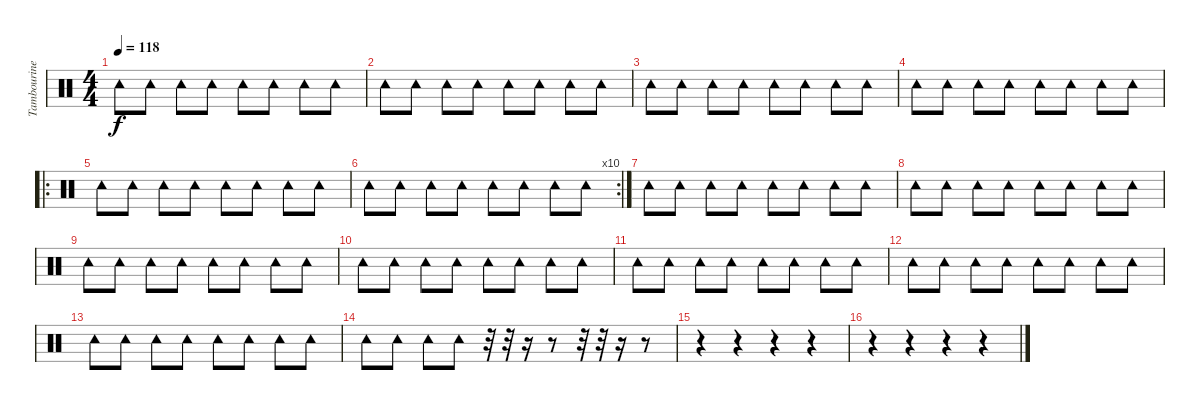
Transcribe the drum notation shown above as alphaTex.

\track ("Tambourine" "Tambourine") {instrument percussion}
\staff {score}
\articulation defaults
\ts (4 4)
\tempo 118
\clef neutral
\ks c "Tambourine (hit)".8{dy f} "Tambourine (hit)".8 "Tambourine (hit)".8 "Tambourine (hit)".8 "Tambourine (hit)".8 "Tambourine (hit)".8 "Tambourine (hit)".8 "Tambourine (hit)".8
|
"Tambourine (hit)".8 "Tambourine (hit)".8 "Tambourine (hit)".8 "Tambourine (hit)".8 "Tambourine (hit)".8 "Tambourine (hit)".8 "Tambourine (hit)".8 "Tambourine (hit)".8 |
"Tambourine (hit)".8 "Tambourine (hit)".8 "Tambourine (hit)".8 "Tambourine (hit)".8 "Tambourine (hit)".8 "Tambourine (hit)".8 "Tambourine (hit)".8 "Tambourine (hit)".8 |
"Tambourine (hit)".8 "Tambourine (hit)".8 "Tambourine (hit)".8 "Tambourine (hit)".8 "Tambourine (hit)".8 "Tambourine (hit)".8 "Tambourine (hit)".8 "Tambourine (hit)".8 |
\ro "Tambourine (hit)".8 "Tambourine (hit)".8 "Tambourine (hit)".8 "Tambourine (hit)".8 "Tambourine (hit)".8 "Tambourine (hit)".8 "Tambourine (hit)".8 "Tambourine (hit)".8
|
\rc 10 "Tambourine (hit)".8 "Tambourine (hit)".8 "Tambourine (hit)".8 "Tambourine (hit)".8 "Tambourine (hit)".8 "Tambourine (hit)".8 "Tambourine (hit)".8 "Tambourine (hit)".8
|
"Tambourine (hit)".8 "Tambourine (hit)".8 "Tambourine (hit)".8 "Tambourine (hit)".8 "Tambourine (hit)".8 "Tambourine (hit)".8 "Tambourine (hit)".8 "Tambourine (hit)".8 |
"Tambourine (hit)".8 "Tambourine (hit)".8 "Tambourine (hit)".8 "Tambourine (hit)".8 "Tambourine (hit)".8 "Tambourine (hit)".8 "Tambourine (hit)".8 "Tambourine (hit)".8 |
"Tambourine (hit)".8 "Tambourine (hit)".8 "Tambourine (hit)".8 "Tambourine (hit)".8 "Tambourine (hit)".8 "Tambourine (hit)".8 "Tambourine (hit)".8 "Tambourine (hit)".8 |
"Tambourine (hit)".8 "Tambourine (hit)".8 "Tambourine (hit)".8 "Tambourine (hit)".8 "Tambourine (hit)".8 "Tambourine (hit)".8 "Tambourine (hit)".8 "Tambourine (hit)".8 |
"Tambourine (hit)".8 "Tambourine (hit)".8 "Tambourine (hit)".8 "Tambourine (hit)".8 "Tambourine (hit)".8 "Tambourine (hit)".8 "Tambourine (hit)".8 "Tambourine (hit)".8 |
"Tambourine (hit)".8 "Tambourine (hit)".8 "Tambourine (hit)".8 "Tambourine (hit)".8 "Tambourine (hit)".8 "Tambourine (hit)".8 "Tambourine (hit)".8 "Tambourine (hit)".8 |
"Tambourine (hit)".8 "Tambourine (hit)".8 "Tambourine (hit)".8 "Tambourine (hit)".8 "Tambourine (hit)".8 "Tambourine (hit)".8 "Tambourine (hit)".8 "Tambourine (hit)".8 |
"Tambourine (hit)".8 "Tambourine (hit)".8 "Tambourine (hit)".8 "Tambourine (hit)".8 r.32 r.32 r.16 r.8 r.32 r.32 r.16 r.8 |
r.4 r.4 r.4 r.4 |
r.4 r.4 r.4 r.4
